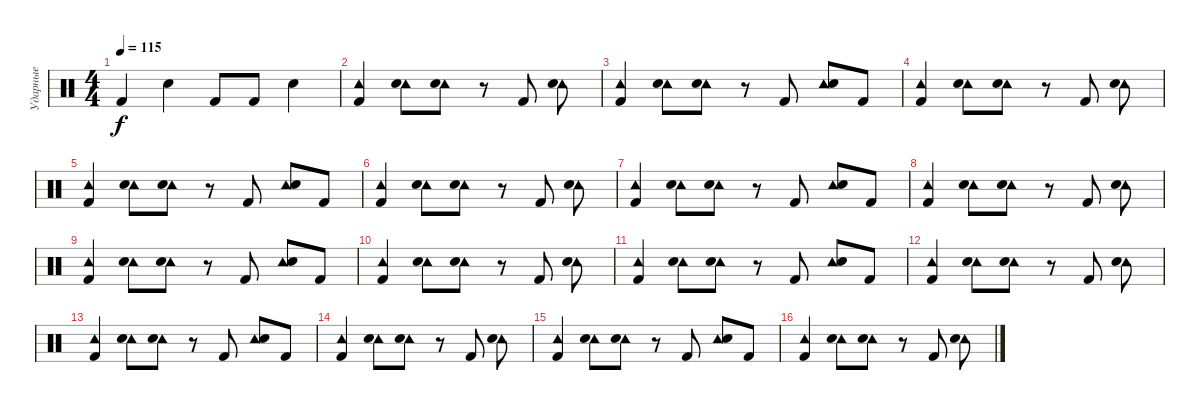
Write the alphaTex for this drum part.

\track ("Ударные" "Ударные") {instrument percussion}
\staff
\articulation defaults
\ts (4 4)
\tempo 115
\clef neutral
\ks c "Kick (hit) 2".4{dy f} "Electric Snare (hit)".4 "Kick (hit) 2".8 "Kick (hit) 2".8 "Electric Snare (hit)".4
|
("Tambourine (hit)" "Kick (hit) 2").4 ("Tambourine (hit)" "Electric Snare (hit)").8 ("Tambourine (hit)" "Electric Snare (hit)").8 r.8 "Kick (hit) 2".8 ("Tambourine (hit)" "Electric Snare (hit)").8 |
("Tambourine (hit)" "Kick (hit) 2").4 ("Tambourine (hit)" "Electric Snare (hit)").8 ("Tambourine (hit)" "Electric Snare (hit)").8 r.8 "Kick (hit) 2".8 ("Tambourine (hit)" "Electric Snare (hit)").8 "Kick (hit) 2".8 |
("Tambourine (hit)" "Kick (hit) 2").4 ("Tambourine (hit)" "Electric Snare (hit)").8 ("Tambourine (hit)" "Electric Snare (hit)").8 r.8 "Kick (hit) 2".8 ("Tambourine (hit)" "Electric Snare (hit)").8 |
("Tambourine (hit)" "Kick (hit) 2").4 ("Tambourine (hit)" "Electric Snare (hit)").8 ("Tambourine (hit)" "Electric Snare (hit)").8 r.8 "Kick (hit) 2".8 ("Tambourine (hit)" "Electric Snare (hit)").8 "Kick (hit) 2".8 |
("Tambourine (hit)" "Kick (hit) 2").4 ("Tambourine (hit)" "Electric Snare (hit)").8 ("Tambourine (hit)" "Electric Snare (hit)").8 r.8 "Kick (hit) 2".8 ("Tambourine (hit)" "Electric Snare (hit)").8 |
("Tambourine (hit)" "Kick (hit) 2").4 ("Tambourine (hit)" "Electric Snare (hit)").8 ("Tambourine (hit)" "Electric Snare (hit)").8 r.8 "Kick (hit) 2".8 ("Tambourine (hit)" "Electric Snare (hit)").8 "Kick (hit) 2".8 |
("Tambourine (hit)" "Kick (hit) 2").4 ("Tambourine (hit)" "Electric Snare (hit)").8 ("Tambourine (hit)" "Electric Snare (hit)").8 r.8 "Kick (hit) 2".8 ("Tambourine (hit)" "Electric Snare (hit)").8 |
("Tambourine (hit)" "Kick (hit) 2").4 ("Tambourine (hit)" "Electric Snare (hit)").8 ("Tambourine (hit)" "Electric Snare (hit)").8 r.8 "Kick (hit) 2".8 ("Tambourine (hit)" "Electric Snare (hit)").8 "Kick (hit) 2".8 |
("Tambourine (hit)" "Kick (hit) 2").4 ("Tambourine (hit)" "Electric Snare (hit)").8 ("Tambourine (hit)" "Electric Snare (hit)").8 r.8 "Kick (hit) 2".8 ("Tambourine (hit)" "Electric Snare (hit)").8 |
("Tambourine (hit)" "Kick (hit) 2").4 ("Tambourine (hit)" "Electric Snare (hit)").8 ("Tambourine (hit)" "Electric Snare (hit)").8 r.8 "Kick (hit) 2".8 ("Tambourine (hit)" "Electric Snare (hit)").8 "Kick (hit) 2".8 |
("Tambourine (hit)" "Kick (hit) 2").4 ("Tambourine (hit)" "Electric Snare (hit)").8 ("Tambourine (hit)" "Electric Snare (hit)").8 r.8 "Kick (hit) 2".8 ("Tambourine (hit)" "Electric Snare (hit)").8 |
("Tambourine (hit)" "Kick (hit) 2").4 ("Tambourine (hit)" "Electric Snare (hit)").8 ("Tambourine (hit)" "Electric Snare (hit)").8 r.8 "Kick (hit) 2".8 ("Tambourine (hit)" "Electric Snare (hit)").8 "Kick (hit) 2".8 |
("Tambourine (hit)" "Kick (hit) 2").4 ("Tambourine (hit)" "Electric Snare (hit)").8 ("Tambourine (hit)" "Electric Snare (hit)").8 r.8 "Kick (hit) 2".8 ("Tambourine (hit)" "Electric Snare (hit)").8 |
("Tambourine (hit)" "Kick (hit) 2").4 ("Tambourine (hit)" "Electric Snare (hit)").8 ("Tambourine (hit)" "Electric Snare (hit)").8 r.8 "Kick (hit) 2".8 ("Tambourine (hit)" "Electric Snare (hit)").8 "Kick (hit) 2".8 |
("Tambourine (hit)" "Kick (hit) 2").4 ("Tambourine (hit)" "Electric Snare (hit)").8 ("Tambourine (hit)" "Electric Snare (hit)").8 r.8 "Kick (hit) 2".8 ("Tambourine (hit)" "Electric Snare (hit)").8
